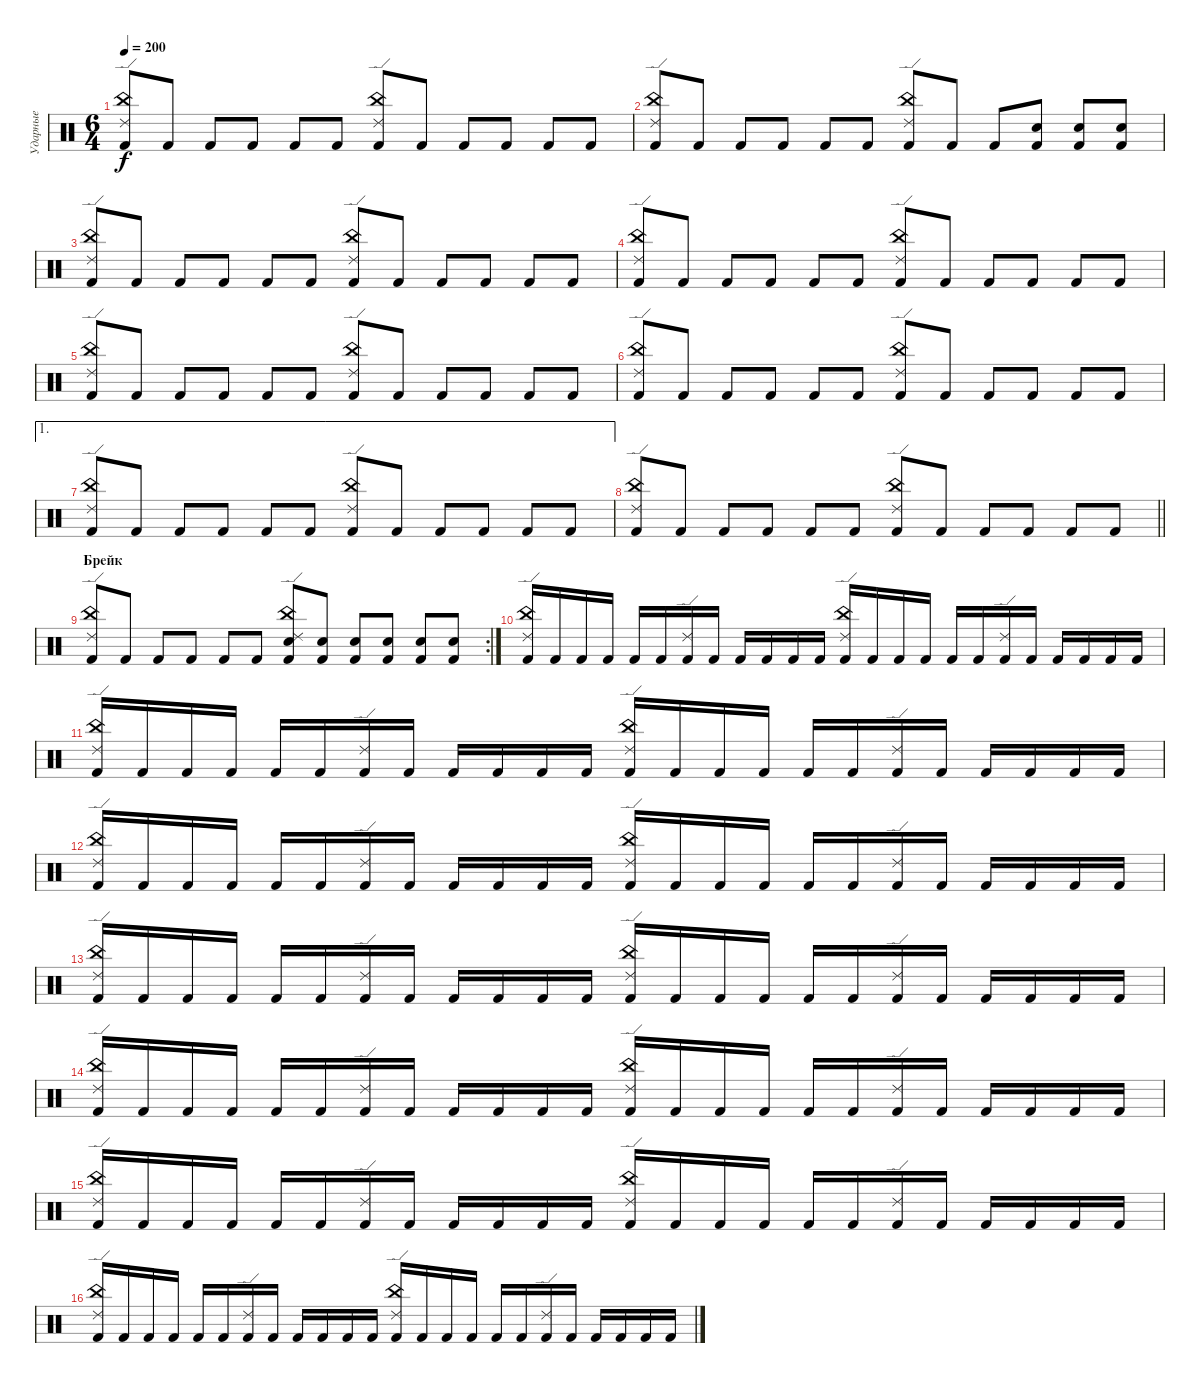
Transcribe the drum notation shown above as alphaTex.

\track ("Ударные" "Ударные") {instrument percussion}
\staff {score}
\articulation defaults
\ts (6 4)
\tempo 200
\clef neutral
\ks c
("Ride (edge) 2" "China (hit)" "Kick (hit) 2").8{dy f} "Kick (hit) 2".8 "Kick (hit) 2".8 "Kick (hit) 2".8 "Kick (hit) 2".8 "Kick (hit) 2".8 ("Ride (edge) 2" "China (hit)" "Kick (hit) 2").8 "Kick (hit) 2".8 "Kick (hit) 2".8 "Kick (hit) 2".8 "Kick (hit) 2".8 "Kick (hit) 2".8 |
("Ride (edge) 2" "China (hit)" "Kick (hit) 2").8 "Kick (hit) 2".8 "Kick (hit) 2".8 "Kick (hit) 2".8 "Kick (hit) 2".8 "Kick (hit) 2".8 ("Ride (edge) 2" "China (hit)" "Kick (hit) 2").8 "Kick (hit) 2".8 "Kick (hit) 2".8 ("Electric Snare (hit)" "Kick (hit) 2").8 ("Electric Snare (hit)" "Kick (hit) 2").8 ("Electric Snare (hit)" "Kick (hit) 2").8 |
("Ride (edge) 2" "China (hit)" "Kick (hit) 2").8 "Kick (hit) 2".8 "Kick (hit) 2".8 "Kick (hit) 2".8 "Kick (hit) 2".8 "Kick (hit) 2".8 ("Ride (edge) 2" "China (hit)" "Kick (hit) 2").8 "Kick (hit) 2".8 "Kick (hit) 2".8 "Kick (hit) 2".8 "Kick (hit) 2".8 "Kick (hit) 2".8 |
("Ride (edge) 2" "China (hit)" "Kick (hit) 2").8 "Kick (hit) 2".8 "Kick (hit) 2".8 "Kick (hit) 2".8 "Kick (hit) 2".8 "Kick (hit) 2".8 ("Ride (edge) 2" "China (hit)" "Kick (hit) 2").8 "Kick (hit) 2".8 "Kick (hit) 2".8 "Kick (hit) 2".8 "Kick (hit) 2".8 "Kick (hit) 2".8 |
("Ride (edge) 2" "China (hit)" "Kick (hit) 2").8 "Kick (hit) 2".8 "Kick (hit) 2".8 "Kick (hit) 2".8 "Kick (hit) 2".8 "Kick (hit) 2".8 ("Ride (edge) 2" "China (hit)" "Kick (hit) 2").8 "Kick (hit) 2".8 "Kick (hit) 2".8 "Kick (hit) 2".8 "Kick (hit) 2".8 "Kick (hit) 2".8 |
("Ride (edge) 2" "China (hit)" "Kick (hit) 2").8 "Kick (hit) 2".8 "Kick (hit) 2".8 "Kick (hit) 2".8 "Kick (hit) 2".8 "Kick (hit) 2".8 ("Ride (edge) 2" "China (hit)" "Kick (hit) 2").8 "Kick (hit) 2".8 "Kick (hit) 2".8 "Kick (hit) 2".8 "Kick (hit) 2".8 "Kick (hit) 2".8 |
\ae 1
("Ride (edge) 2" "China (hit)" "Kick (hit) 2").8 "Kick (hit) 2".8 "Kick (hit) 2".8 "Kick (hit) 2".8 "Kick (hit) 2".8 "Kick (hit) 2".8 ("Ride (edge) 2" "China (hit)" "Kick (hit) 2").8 "Kick (hit) 2".8 "Kick (hit) 2".8 "Kick (hit) 2".8 "Kick (hit) 2".8 "Kick (hit) 2".8 |
\barLineRight lightlight
("Ride (edge) 2" "China (hit)" "Kick (hit) 2").8 "Kick (hit) 2".8 "Kick (hit) 2".8 "Kick (hit) 2".8 "Kick (hit) 2".8 "Kick (hit) 2".8 ("Ride (edge) 2" "China (hit)" "Kick (hit) 2").8 "Kick (hit) 2".8 "Kick (hit) 2".8 "Kick (hit) 2".8 "Kick (hit) 2".8 "Kick (hit) 2".8 |
\rc 2
\section ("" "Брейк")
("Ride (edge) 2" "China (hit)" "Kick (hit) 2").8 "Kick (hit) 2".8 "Kick (hit) 2".8 "Kick (hit) 2".8 "Kick (hit) 2".8 "Kick (hit) 2".8 ("Ride (edge) 2" "China (hit)" "Electric Snare (hit)" "Kick (hit) 2").8 ("Electric Snare (hit)" "Kick (hit) 2").8 ("Electric Snare (hit)" "Kick (hit) 2").8 ("Electric Snare (hit)" "Kick (hit) 2").8 ("Electric Snare (hit)" "Kick (hit) 2").8 ("Electric Snare (hit)" "Kick (hit) 2").8 |
("Ride (edge) 2" "China (hit)" "Kick (hit) 2").16 "Kick (hit) 2".16 "Kick (hit) 2".16 "Kick (hit) 2".16 "Kick (hit) 2".16 "Kick (hit) 2".16 ("Ride (edge) 2" "Kick (hit) 2").16 "Kick (hit) 2".16 "Kick (hit) 2".16 "Kick (hit) 2".16 "Kick (hit) 2".16 "Kick (hit) 2".16 ("Ride (edge) 2" "China (hit)" "Kick (hit) 2").16 "Kick (hit) 2".16 "Kick (hit) 2".16 "Kick (hit) 2".16 "Kick (hit) 2".16 "Kick (hit) 2".16 ("Ride (edge) 2" "Kick (hit) 2").16 "Kick (hit) 2".16 "Kick (hit) 2".16 "Kick (hit) 2".16 "Kick (hit) 2".16 "Kick (hit) 2".16 |
("Ride (edge) 2" "China (hit)" "Kick (hit) 2").16 "Kick (hit) 2".16 "Kick (hit) 2".16 "Kick (hit) 2".16 "Kick (hit) 2".16 "Kick (hit) 2".16 ("Ride (edge) 2" "Kick (hit) 2").16 "Kick (hit) 2".16 "Kick (hit) 2".16 "Kick (hit) 2".16 "Kick (hit) 2".16 "Kick (hit) 2".16 ("Ride (edge) 2" "China (hit)" "Kick (hit) 2").16 "Kick (hit) 2".16 "Kick (hit) 2".16 "Kick (hit) 2".16 "Kick (hit) 2".16 "Kick (hit) 2".16 ("Ride (edge) 2" "Kick (hit) 2").16 "Kick (hit) 2".16 "Kick (hit) 2".16 "Kick (hit) 2".16 "Kick (hit) 2".16 "Kick (hit) 2".16 |
("Ride (edge) 2" "China (hit)" "Kick (hit) 2").16 "Kick (hit) 2".16 "Kick (hit) 2".16 "Kick (hit) 2".16 "Kick (hit) 2".16 "Kick (hit) 2".16 ("Ride (edge) 2" "Kick (hit) 2").16 "Kick (hit) 2".16 "Kick (hit) 2".16 "Kick (hit) 2".16 "Kick (hit) 2".16 "Kick (hit) 2".16 ("Ride (edge) 2" "China (hit)" "Kick (hit) 2").16 "Kick (hit) 2".16 "Kick (hit) 2".16 "Kick (hit) 2".16 "Kick (hit) 2".16 "Kick (hit) 2".16 ("Ride (edge) 2" "Kick (hit) 2").16 "Kick (hit) 2".16 "Kick (hit) 2".16 "Kick (hit) 2".16 "Kick (hit) 2".16 "Kick (hit) 2".16 |
("Ride (edge) 2" "China (hit)" "Kick (hit) 2").16 "Kick (hit) 2".16 "Kick (hit) 2".16 "Kick (hit) 2".16 "Kick (hit) 2".16 "Kick (hit) 2".16 ("Ride (edge) 2" "Kick (hit) 2").16 "Kick (hit) 2".16 "Kick (hit) 2".16 "Kick (hit) 2".16 "Kick (hit) 2".16 "Kick (hit) 2".16 ("Ride (edge) 2" "China (hit)" "Kick (hit) 2").16 "Kick (hit) 2".16 "Kick (hit) 2".16 "Kick (hit) 2".16 "Kick (hit) 2".16 "Kick (hit) 2".16 ("Ride (edge) 2" "Kick (hit) 2").16 "Kick (hit) 2".16 "Kick (hit) 2".16 "Kick (hit) 2".16 "Kick (hit) 2".16 "Kick (hit) 2".16 |
("Ride (edge) 2" "China (hit)" "Kick (hit) 2").16 "Kick (hit) 2".16 "Kick (hit) 2".16 "Kick (hit) 2".16 "Kick (hit) 2".16 "Kick (hit) 2".16 ("Ride (edge) 2" "Kick (hit) 2").16 "Kick (hit) 2".16 "Kick (hit) 2".16 "Kick (hit) 2".16 "Kick (hit) 2".16 "Kick (hit) 2".16 ("Ride (edge) 2" "China (hit)" "Kick (hit) 2").16 "Kick (hit) 2".16 "Kick (hit) 2".16 "Kick (hit) 2".16 "Kick (hit) 2".16 "Kick (hit) 2".16 ("Ride (edge) 2" "Kick (hit) 2").16 "Kick (hit) 2".16 "Kick (hit) 2".16 "Kick (hit) 2".16 "Kick (hit) 2".16 "Kick (hit) 2".16 |
("Ride (edge) 2" "China (hit)" "Kick (hit) 2").16 "Kick (hit) 2".16 "Kick (hit) 2".16 "Kick (hit) 2".16 "Kick (hit) 2".16 "Kick (hit) 2".16 ("Ride (edge) 2" "Kick (hit) 2").16 "Kick (hit) 2".16 "Kick (hit) 2".16 "Kick (hit) 2".16 "Kick (hit) 2".16 "Kick (hit) 2".16 ("Ride (edge) 2" "China (hit)" "Kick (hit) 2").16 "Kick (hit) 2".16 "Kick (hit) 2".16 "Kick (hit) 2".16 "Kick (hit) 2".16 "Kick (hit) 2".16 ("Ride (edge) 2" "Kick (hit) 2").16 "Kick (hit) 2".16 "Kick (hit) 2".16 "Kick (hit) 2".16 "Kick (hit) 2".16 "Kick (hit) 2".16 |
("Ride (edge) 2" "China (hit)" "Kick (hit) 2").16 "Kick (hit) 2".16 "Kick (hit) 2".16 "Kick (hit) 2".16 "Kick (hit) 2".16 "Kick (hit) 2".16 ("Ride (edge) 2" "Kick (hit) 2").16 "Kick (hit) 2".16 "Kick (hit) 2".16 "Kick (hit) 2".16 "Kick (hit) 2".16 "Kick (hit) 2".16 ("Ride (edge) 2" "China (hit)" "Kick (hit) 2").16 "Kick (hit) 2".16 "Kick (hit) 2".16 "Kick (hit) 2".16 "Kick (hit) 2".16 "Kick (hit) 2".16 ("Ride (edge) 2" "Kick (hit) 2").16 "Kick (hit) 2".16 "Kick (hit) 2".16 "Kick (hit) 2".16 "Kick (hit) 2".16 "Kick (hit) 2".16
